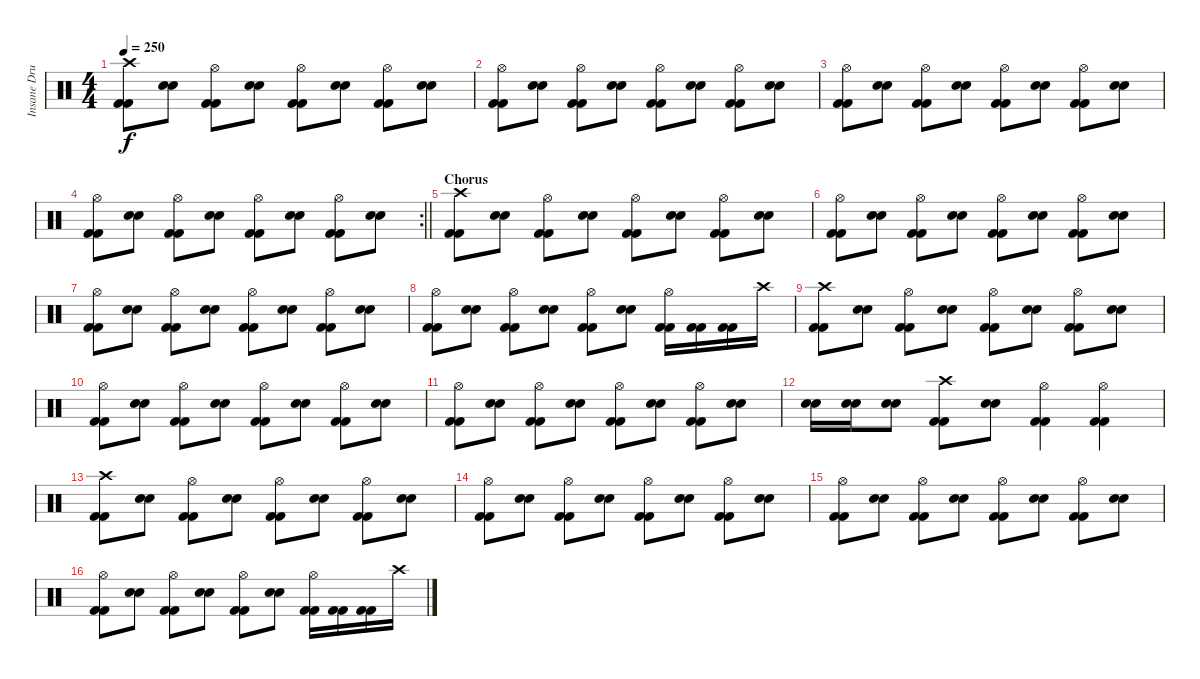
\track ("Insane Drums" "Insane Dru") {instrument percussion}
\staff {score}
\articulation defaults
\ts (4 4)
\tempo 250
\clef neutral
\ks c
("Kick (hit) 2" "Kick (hit) 2" "Crash high (hit)").8{dy f} ("Electric Snare (hit)" "Electric Snare (hit)").8 ("Kick (hit) 2" "Kick (hit) 2" "Hi-Hat (open)").8 ("Electric Snare (hit)" "Electric Snare (hit)").8 ("Kick (hit) 2" "Kick (hit) 2" "Hi-Hat (open)").8 ("Electric Snare (hit)" "Electric Snare (hit)").8 ("Kick (hit) 2" "Kick (hit) 2" "Hi-Hat (open)").8 ("Electric Snare (hit)" "Electric Snare (hit)").8 |
("Kick (hit) 2" "Kick (hit) 2" "Hi-Hat (open)").8 ("Electric Snare (hit)" "Electric Snare (hit)").8 ("Kick (hit) 2" "Kick (hit) 2" "Hi-Hat (open)").8 ("Electric Snare (hit)" "Electric Snare (hit)").8 ("Kick (hit) 2" "Kick (hit) 2" "Hi-Hat (open)").8 ("Electric Snare (hit)" "Electric Snare (hit)").8 ("Kick (hit) 2" "Kick (hit) 2" "Hi-Hat (open)").8 ("Electric Snare (hit)" "Electric Snare (hit)").8 |
("Kick (hit) 2" "Kick (hit) 2" "Hi-Hat (open)").8 ("Electric Snare (hit)" "Electric Snare (hit)").8 ("Kick (hit) 2" "Kick (hit) 2" "Hi-Hat (open)").8 ("Electric Snare (hit)" "Electric Snare (hit)").8 ("Kick (hit) 2" "Kick (hit) 2" "Hi-Hat (open)").8 ("Electric Snare (hit)" "Electric Snare (hit)").8 ("Kick (hit) 2" "Kick (hit) 2" "Hi-Hat (open)").8 ("Electric Snare (hit)" "Electric Snare (hit)").8 |
\rc 2
\barLineRight lightlight
("Kick (hit) 2" "Kick (hit) 2" "Hi-Hat (open)").8 ("Electric Snare (hit)" "Electric Snare (hit)").8 ("Kick (hit) 2" "Kick (hit) 2" "Hi-Hat (open)").8 ("Electric Snare (hit)" "Electric Snare (hit)").8 ("Kick (hit) 2" "Kick (hit) 2" "Hi-Hat (open)").8 ("Electric Snare (hit)" "Electric Snare (hit)").8 ("Kick (hit) 2" "Kick (hit) 2" "Hi-Hat (open)").8 ("Electric Snare (hit)" "Electric Snare (hit)").8 |
\section ("" "Chorus")
("Kick (hit) 2" "Kick (hit) 2" "Crash high (hit)").8 ("Electric Snare (hit)" "Electric Snare (hit)").8 ("Kick (hit) 2" "Kick (hit) 2" "Hi-Hat (open)").8 ("Electric Snare (hit)" "Electric Snare (hit)").8 ("Kick (hit) 2" "Kick (hit) 2" "Hi-Hat (open)").8 ("Electric Snare (hit)" "Electric Snare (hit)").8 ("Kick (hit) 2" "Kick (hit) 2" "Hi-Hat (open)").8 ("Electric Snare (hit)" "Electric Snare (hit)").8 |
("Kick (hit) 2" "Kick (hit) 2" "Hi-Hat (open)").8 ("Electric Snare (hit)" "Electric Snare (hit)").8 ("Kick (hit) 2" "Kick (hit) 2" "Hi-Hat (open)").8 ("Electric Snare (hit)" "Electric Snare (hit)").8 ("Kick (hit) 2" "Kick (hit) 2" "Hi-Hat (open)").8 ("Electric Snare (hit)" "Electric Snare (hit)").8 ("Kick (hit) 2" "Kick (hit) 2" "Hi-Hat (open)").8 ("Electric Snare (hit)" "Electric Snare (hit)").8 |
("Kick (hit) 2" "Kick (hit) 2" "Hi-Hat (open)").8 ("Electric Snare (hit)" "Electric Snare (hit)").8 ("Kick (hit) 2" "Kick (hit) 2" "Hi-Hat (open)").8 ("Electric Snare (hit)" "Electric Snare (hit)").8 ("Kick (hit) 2" "Kick (hit) 2" "Hi-Hat (open)").8 ("Electric Snare (hit)" "Electric Snare (hit)").8 ("Kick (hit) 2" "Kick (hit) 2" "Hi-Hat (open)").8 ("Electric Snare (hit)" "Electric Snare (hit)").8 |
("Kick (hit) 2" "Kick (hit) 2" "Hi-Hat (open)").8 ("Electric Snare (hit)" "Electric Snare (hit)").8 ("Kick (hit) 2" "Kick (hit) 2" "Hi-Hat (open)").8 ("Electric Snare (hit)" "Electric Snare (hit)").8 ("Kick (hit) 2" "Kick (hit) 2" "Hi-Hat (open)").8 ("Electric Snare (hit)" "Electric Snare (hit)").8 ("Kick (hit) 2" "Kick (hit) 2" "Hi-Hat (open)").16 ("Kick (hit) 2" "Kick (hit) 2").16 ("Kick (hit) 2" "Kick (hit) 2").16 "Crash high (hit)".16 |
("Kick (hit) 2" "Kick (hit) 2" "Crash high (hit)").8 ("Electric Snare (hit)" "Electric Snare (hit)").8 ("Kick (hit) 2" "Kick (hit) 2" "Hi-Hat (open)").8 ("Electric Snare (hit)" "Electric Snare (hit)").8 ("Kick (hit) 2" "Kick (hit) 2" "Hi-Hat (open)").8 ("Electric Snare (hit)" "Electric Snare (hit)").8 ("Kick (hit) 2" "Kick (hit) 2" "Hi-Hat (open)").8 ("Electric Snare (hit)" "Electric Snare (hit)").8 |
("Kick (hit) 2" "Kick (hit) 2" "Hi-Hat (open)").8 ("Electric Snare (hit)" "Electric Snare (hit)").8 ("Kick (hit) 2" "Kick (hit) 2" "Hi-Hat (open)").8 ("Electric Snare (hit)" "Electric Snare (hit)").8 ("Kick (hit) 2" "Kick (hit) 2" "Hi-Hat (open)").8 ("Electric Snare (hit)" "Electric Snare (hit)").8 ("Kick (hit) 2" "Kick (hit) 2" "Hi-Hat (open)").8 ("Electric Snare (hit)" "Electric Snare (hit)").8 |
("Kick (hit) 2" "Kick (hit) 2" "Hi-Hat (open)").8 ("Electric Snare (hit)" "Electric Snare (hit)").8 ("Kick (hit) 2" "Kick (hit) 2" "Hi-Hat (open)").8 ("Electric Snare (hit)" "Electric Snare (hit)").8 ("Kick (hit) 2" "Kick (hit) 2" "Hi-Hat (open)").8 ("Electric Snare (hit)" "Electric Snare (hit)").8 ("Kick (hit) 2" "Kick (hit) 2" "Hi-Hat (open)").8 ("Electric Snare (hit)" "Electric Snare (hit)").8 |
("Electric Snare (hit)" "Electric Snare (hit)").16 ("Electric Snare (hit)" "Electric Snare (hit)").16 ("Electric Snare (hit)" "Electric Snare (hit)").8 ("Kick (hit) 2" "Kick (hit) 2" "Crash high (hit)").8 ("Electric Snare (hit)" "Electric Snare (hit)").8 ("Kick (hit) 2" "Kick (hit) 2" "Hi-Hat (open)").4 ("Kick (hit) 2" "Kick (hit) 2" "Hi-Hat (open)").4 |
("Kick (hit) 2" "Kick (hit) 2" "Crash high (hit)").8 ("Electric Snare (hit)" "Electric Snare (hit)").8 ("Kick (hit) 2" "Kick (hit) 2" "Hi-Hat (open)").8 ("Electric Snare (hit)" "Electric Snare (hit)").8 ("Kick (hit) 2" "Kick (hit) 2" "Hi-Hat (open)").8 ("Electric Snare (hit)" "Electric Snare (hit)").8 ("Kick (hit) 2" "Kick (hit) 2" "Hi-Hat (open)").8 ("Electric Snare (hit)" "Electric Snare (hit)").8 |
("Kick (hit) 2" "Kick (hit) 2" "Hi-Hat (open)").8 ("Electric Snare (hit)" "Electric Snare (hit)").8 ("Kick (hit) 2" "Kick (hit) 2" "Hi-Hat (open)").8 ("Electric Snare (hit)" "Electric Snare (hit)").8 ("Kick (hit) 2" "Kick (hit) 2" "Hi-Hat (open)").8 ("Electric Snare (hit)" "Electric Snare (hit)").8 ("Kick (hit) 2" "Kick (hit) 2" "Hi-Hat (open)").8 ("Electric Snare (hit)" "Electric Snare (hit)").8 |
("Kick (hit) 2" "Kick (hit) 2" "Hi-Hat (open)").8 ("Electric Snare (hit)" "Electric Snare (hit)").8 ("Kick (hit) 2" "Kick (hit) 2" "Hi-Hat (open)").8 ("Electric Snare (hit)" "Electric Snare (hit)").8 ("Kick (hit) 2" "Kick (hit) 2" "Hi-Hat (open)").8 ("Electric Snare (hit)" "Electric Snare (hit)").8 ("Kick (hit) 2" "Kick (hit) 2" "Hi-Hat (open)").8 ("Electric Snare (hit)" "Electric Snare (hit)").8 |
("Kick (hit) 2" "Kick (hit) 2" "Hi-Hat (open)").8 ("Electric Snare (hit)" "Electric Snare (hit)").8 ("Kick (hit) 2" "Kick (hit) 2" "Hi-Hat (open)").8 ("Electric Snare (hit)" "Electric Snare (hit)").8 ("Kick (hit) 2" "Kick (hit) 2" "Hi-Hat (open)").8 ("Electric Snare (hit)" "Electric Snare (hit)").8 ("Kick (hit) 2" "Kick (hit) 2" "Hi-Hat (open)").16 ("Kick (hit) 2" "Kick (hit) 2").16 ("Kick (hit) 2" "Kick (hit) 2").16 "Crash high (hit)".16
